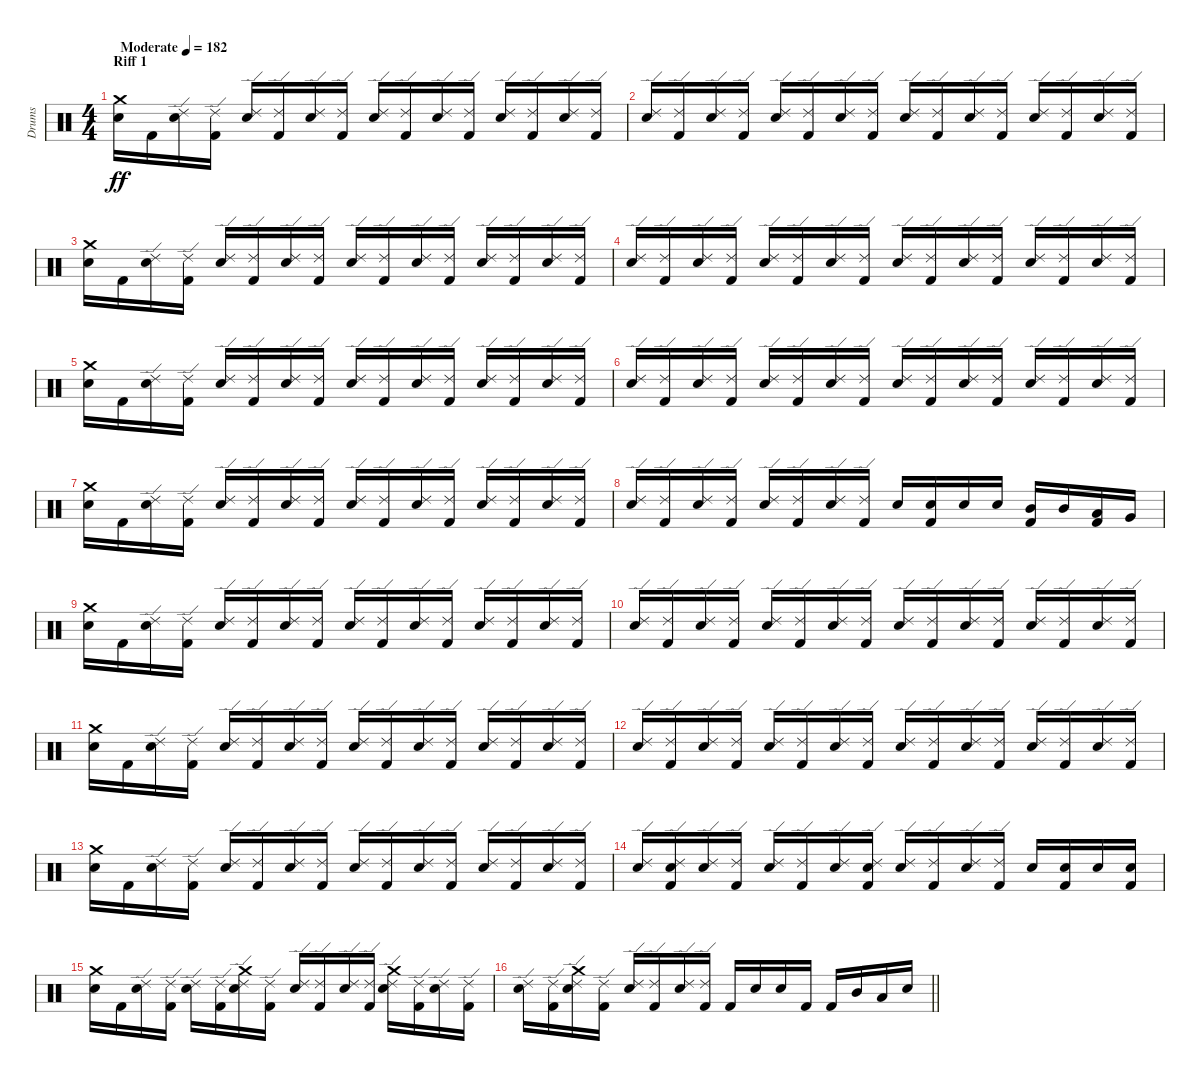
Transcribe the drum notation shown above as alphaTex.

\track ("Drums" "Drums") {instrument percussion}
\staff {score}
\articulation defaults
\ts (4 4)
\section ("" "Riff 1")
\tempo (182 "Moderate")
\clef neutral
\ks c
("Crash medium (hit)" "Snare (hit) 2").16{dy ff} "Kick (hit) 2".16 ("Snare (hit) 2" "Ride (edge) 2").16 ("Kick (hit) 2" "Ride (edge) 2").16 ("Snare (hit) 2" "Ride (edge) 2").16 ("Kick (hit) 2" "Ride (edge) 2").16 ("Snare (hit) 2" "Ride (edge) 2").16 ("Kick (hit) 2" "Ride (edge) 2").16 ("Snare (hit) 2" "Ride (edge) 2").16 ("Kick (hit) 2" "Ride (edge) 2").16 ("Snare (hit) 2" "Ride (edge) 2").16 ("Kick (hit) 2" "Ride (edge) 2").16 ("Snare (hit) 2" "Ride (edge) 2").16 ("Kick (hit) 2" "Ride (edge) 2").16 ("Snare (hit) 2" "Ride (edge) 2").16 ("Kick (hit) 2" "Ride (edge) 2").16 |
("Snare (hit) 2" "Ride (edge) 2").16 ("Kick (hit) 2" "Ride (edge) 2").16 ("Snare (hit) 2" "Ride (edge) 2").16 ("Kick (hit) 2" "Ride (edge) 2").16 ("Snare (hit) 2" "Ride (edge) 2").16 ("Kick (hit) 2" "Ride (edge) 2").16 ("Snare (hit) 2" "Ride (edge) 2").16 ("Kick (hit) 2" "Ride (edge) 2").16 ("Snare (hit) 2" "Ride (edge) 2").16 ("Kick (hit) 2" "Ride (edge) 2").16 ("Snare (hit) 2" "Ride (edge) 2").16 ("Kick (hit) 2" "Ride (edge) 2").16 ("Snare (hit) 2" "Ride (edge) 2").16 ("Kick (hit) 2" "Ride (edge) 2").16 ("Snare (hit) 2" "Ride (edge) 2").16 ("Kick (hit) 2" "Ride (edge) 2").16 |
("Crash medium (hit)" "Snare (hit) 2").16 "Kick (hit) 2".16 ("Snare (hit) 2" "Ride (edge) 2").16 ("Kick (hit) 2" "Ride (edge) 2").16 ("Snare (hit) 2" "Ride (edge) 2").16 ("Kick (hit) 2" "Ride (edge) 2").16 ("Snare (hit) 2" "Ride (edge) 2").16 ("Kick (hit) 2" "Ride (edge) 2").16 ("Snare (hit) 2" "Ride (edge) 2").16 ("Kick (hit) 2" "Ride (edge) 2").16 ("Snare (hit) 2" "Ride (edge) 2").16 ("Kick (hit) 2" "Ride (edge) 2").16 ("Snare (hit) 2" "Ride (edge) 2").16 ("Kick (hit) 2" "Ride (edge) 2").16 ("Snare (hit) 2" "Ride (edge) 2").16 ("Kick (hit) 2" "Ride (edge) 2").16 |
("Snare (hit) 2" "Ride (edge) 2").16 ("Kick (hit) 2" "Ride (edge) 2").16 ("Snare (hit) 2" "Ride (edge) 2").16 ("Kick (hit) 2" "Ride (edge) 2").16 ("Snare (hit) 2" "Ride (edge) 2").16 ("Kick (hit) 2" "Ride (edge) 2").16 ("Snare (hit) 2" "Ride (edge) 2").16 ("Kick (hit) 2" "Ride (edge) 2").16 ("Snare (hit) 2" "Ride (edge) 2").16 ("Kick (hit) 2" "Ride (edge) 2").16 ("Snare (hit) 2" "Ride (edge) 2").16 ("Kick (hit) 2" "Ride (edge) 2").16 ("Snare (hit) 2" "Ride (edge) 2").16 ("Kick (hit) 2" "Ride (edge) 2").16 ("Snare (hit) 2" "Ride (edge) 2").16 ("Kick (hit) 2" "Ride (edge) 2").16 |
("Crash medium (hit)" "Snare (hit) 2").16 "Kick (hit) 2".16 ("Snare (hit) 2" "Ride (edge) 2").16 ("Kick (hit) 2" "Ride (edge) 2").16 ("Snare (hit) 2" "Ride (edge) 2").16 ("Kick (hit) 2" "Ride (edge) 2").16 ("Snare (hit) 2" "Ride (edge) 2").16 ("Kick (hit) 2" "Ride (edge) 2").16 ("Snare (hit) 2" "Ride (edge) 2").16 ("Kick (hit) 2" "Ride (edge) 2").16 ("Snare (hit) 2" "Ride (edge) 2").16 ("Kick (hit) 2" "Ride (edge) 2").16 ("Snare (hit) 2" "Ride (edge) 2").16 ("Kick (hit) 2" "Ride (edge) 2").16 ("Snare (hit) 2" "Ride (edge) 2").16 ("Kick (hit) 2" "Ride (edge) 2").16 |
("Snare (hit) 2" "Ride (edge) 2").16 ("Kick (hit) 2" "Ride (edge) 2").16 ("Snare (hit) 2" "Ride (edge) 2").16 ("Kick (hit) 2" "Ride (edge) 2").16 ("Snare (hit) 2" "Ride (edge) 2").16 ("Kick (hit) 2" "Ride (edge) 2").16 ("Snare (hit) 2" "Ride (edge) 2").16 ("Kick (hit) 2" "Ride (edge) 2").16 ("Snare (hit) 2" "Ride (edge) 2").16 ("Kick (hit) 2" "Ride (edge) 2").16 ("Snare (hit) 2" "Ride (edge) 2").16 ("Kick (hit) 2" "Ride (edge) 2").16 ("Snare (hit) 2" "Ride (edge) 2").16 ("Kick (hit) 2" "Ride (edge) 2").16 ("Snare (hit) 2" "Ride (edge) 2").16 ("Kick (hit) 2" "Ride (edge) 2").16 |
("Crash medium (hit)" "Snare (hit) 2").16 "Kick (hit) 2".16 ("Snare (hit) 2" "Ride (edge) 2").16 ("Kick (hit) 2" "Ride (edge) 2").16 ("Snare (hit) 2" "Ride (edge) 2").16 ("Kick (hit) 2" "Ride (edge) 2").16 ("Snare (hit) 2" "Ride (edge) 2").16 ("Kick (hit) 2" "Ride (edge) 2").16 ("Snare (hit) 2" "Ride (edge) 2").16 ("Kick (hit) 2" "Ride (edge) 2").16 ("Snare (hit) 2" "Ride (edge) 2").16 ("Kick (hit) 2" "Ride (edge) 2").16 ("Snare (hit) 2" "Ride (edge) 2").16 ("Kick (hit) 2" "Ride (edge) 2").16 ("Snare (hit) 2" "Ride (edge) 2").16 ("Kick (hit) 2" "Ride (edge) 2").16 |
("Snare (hit) 2" "Ride (edge) 2").16 ("Kick (hit) 2" "Ride (edge) 2").16 ("Snare (hit) 2" "Ride (edge) 2").16 ("Kick (hit) 2" "Ride (edge) 2").16 ("Snare (hit) 2" "Ride (edge) 2").16 ("Kick (hit) 2" "Ride (edge) 2").16 ("Snare (hit) 2" "Ride (edge) 2").16 ("Kick (hit) 2" "Ride (edge) 2").16 "Snare (hit) 2".16 ("Kick (hit) 2" "Snare (hit) 2").16 "Snare (hit) 2".16 "Snare (hit) 2".16 ("Kick (hit) 2" "Mid Tom (hit)").16 "Mid Tom (hit)".16 ("Kick (hit) 2" "Low Tom (hit)").16 "Very Low Tom (hit)".16 |
("Crash medium (hit)" "Snare (hit) 2").16 "Kick (hit) 2".16 ("Snare (hit) 2" "Ride (edge) 2").16 ("Kick (hit) 2" "Ride (edge) 2").16 ("Snare (hit) 2" "Ride (edge) 2").16 ("Kick (hit) 2" "Ride (edge) 2").16 ("Snare (hit) 2" "Ride (edge) 2").16 ("Kick (hit) 2" "Ride (edge) 2").16 ("Snare (hit) 2" "Ride (edge) 2").16 ("Kick (hit) 2" "Ride (edge) 2").16 ("Snare (hit) 2" "Ride (edge) 2").16 ("Kick (hit) 2" "Ride (edge) 2").16 ("Snare (hit) 2" "Ride (edge) 2").16 ("Kick (hit) 2" "Ride (edge) 2").16 ("Snare (hit) 2" "Ride (edge) 2").16 ("Kick (hit) 2" "Ride (edge) 2").16 |
("Snare (hit) 2" "Ride (edge) 2").16 ("Kick (hit) 2" "Ride (edge) 2").16 ("Snare (hit) 2" "Ride (edge) 2").16 ("Kick (hit) 2" "Ride (edge) 2").16 ("Snare (hit) 2" "Ride (edge) 2").16 ("Kick (hit) 2" "Ride (edge) 2").16 ("Snare (hit) 2" "Ride (edge) 2").16 ("Kick (hit) 2" "Ride (edge) 2").16 ("Snare (hit) 2" "Ride (edge) 2").16 ("Kick (hit) 2" "Ride (edge) 2").16 ("Snare (hit) 2" "Ride (edge) 2").16 ("Kick (hit) 2" "Ride (edge) 2").16 ("Snare (hit) 2" "Ride (edge) 2").16 ("Kick (hit) 2" "Ride (edge) 2").16 ("Snare (hit) 2" "Ride (edge) 2").16 ("Kick (hit) 2" "Ride (edge) 2").16 |
("Crash medium (hit)" "Snare (hit) 2").16 "Kick (hit) 2".16 ("Snare (hit) 2" "Ride (edge) 2").16 ("Kick (hit) 2" "Ride (edge) 2").16 ("Snare (hit) 2" "Ride (edge) 2").16 ("Kick (hit) 2" "Ride (edge) 2").16 ("Snare (hit) 2" "Ride (edge) 2").16 ("Kick (hit) 2" "Ride (edge) 2").16 ("Snare (hit) 2" "Ride (edge) 2").16 ("Kick (hit) 2" "Ride (edge) 2").16 ("Snare (hit) 2" "Ride (edge) 2").16 ("Kick (hit) 2" "Ride (edge) 2").16 ("Snare (hit) 2" "Ride (edge) 2").16 ("Kick (hit) 2" "Ride (edge) 2").16 ("Snare (hit) 2" "Ride (edge) 2").16 ("Kick (hit) 2" "Ride (edge) 2").16 |
("Snare (hit) 2" "Ride (edge) 2").16 ("Kick (hit) 2" "Ride (edge) 2").16 ("Snare (hit) 2" "Ride (edge) 2").16 ("Kick (hit) 2" "Ride (edge) 2").16 ("Snare (hit) 2" "Ride (edge) 2").16 ("Kick (hit) 2" "Ride (edge) 2").16 ("Snare (hit) 2" "Ride (edge) 2").16 ("Kick (hit) 2" "Ride (edge) 2").16 ("Snare (hit) 2" "Ride (edge) 2").16 ("Kick (hit) 2" "Ride (edge) 2").16 ("Snare (hit) 2" "Ride (edge) 2").16 ("Kick (hit) 2" "Ride (edge) 2").16 ("Snare (hit) 2" "Ride (edge) 2").16 ("Kick (hit) 2" "Ride (edge) 2").16 ("Snare (hit) 2" "Ride (edge) 2").16 ("Kick (hit) 2" "Ride (edge) 2").16 |
("Crash medium (hit)" "Snare (hit) 2").16 "Kick (hit) 2".16 ("Snare (hit) 2" "Ride (edge) 2").16 ("Kick (hit) 2" "Ride (edge) 2").16 ("Snare (hit) 2" "Ride (edge) 2").16 ("Kick (hit) 2" "Ride (edge) 2").16 ("Snare (hit) 2" "Ride (edge) 2").16 ("Kick (hit) 2" "Ride (edge) 2").16 ("Snare (hit) 2" "Ride (edge) 2").16 ("Kick (hit) 2" "Ride (edge) 2").16 ("Snare (hit) 2" "Ride (edge) 2").16 ("Kick (hit) 2" "Ride (edge) 2").16 ("Snare (hit) 2" "Ride (edge) 2").16 ("Kick (hit) 2" "Ride (edge) 2").16 ("Snare (hit) 2" "Ride (edge) 2").16 ("Kick (hit) 2" "Ride (edge) 2").16 |
("Snare (hit) 2" "Ride (edge) 2").16 ("Kick (hit) 2" "Snare (hit) 2" "Ride (edge) 2").16 ("Snare (hit) 2" "Ride (edge) 2").16 ("Kick (hit) 2" "Ride (edge) 2").16 ("Snare (hit) 2" "Ride (edge) 2").16 ("Kick (hit) 2" "Ride (edge) 2").16 ("Snare (hit) 2" "Ride (edge) 2").16 ("Kick (hit) 2" "Snare (hit) 2" "Ride (edge) 2").16 ("Snare (hit) 2" "Ride (edge) 2").16 ("Kick (hit) 2" "Ride (edge) 2").16 ("Snare (hit) 2" "Ride (edge) 2").16 ("Kick (hit) 2" "Ride (edge) 2").16 "Snare (hit) 2".16 ("Kick (hit) 2" "Snare (hit) 2").16 "Snare (hit) 2".16 ("Kick (hit) 2" "Snare (hit) 2").16 |
("Crash medium (hit)" "Snare (hit) 2").16 "Kick (hit) 2".16 ("Snare (hit) 2" "Ride (edge) 2").16 ("Kick (hit) 2" "Ride (edge) 2").16 ("Snare (hit) 2" "Ride (edge) 2").16 ("Kick (hit) 2" "Ride (edge) 2").16 ("Crash medium (hit)" "Snare (hit) 2" "Ride (edge) 2").16 ("Kick (hit) 2" "Ride (edge) 2").16 ("Snare (hit) 2" "Ride (edge) 2").16 ("Kick (hit) 2" "Ride (edge) 2").16 ("Snare (hit) 2" "Ride (edge) 2").16 ("Kick (hit) 2" "Ride (edge) 2").16 ("Crash medium (hit)" "Snare (hit) 2" "Ride (edge) 2").16 ("Kick (hit) 2" "Ride (edge) 2").16 ("Snare (hit) 2" "Ride (edge) 2").16 ("Kick (hit) 2" "Ride (edge) 2").16 |
\barLineRight lightlight
("Snare (hit) 2" "Ride (edge) 2").16 ("Kick (hit) 2" "Ride (edge) 2").16 ("Crash medium (hit)" "Snare (hit) 2" "Ride (edge) 2").16 ("Kick (hit) 2" "Ride (edge) 2").16 ("Snare (hit) 2" "Ride (edge) 2").16 ("Kick (hit) 2" "Ride (edge) 2").16 ("Snare (hit) 2" "Ride (edge) 2").16 ("Kick (hit) 2" "Ride (edge) 2").16 "Kick (hit) 2".16 "Snare (hit) 2".16 "Snare (hit) 2".16 "Kick (hit) 2".16 "Kick (hit) 2".16 "Mid Tom (hit)".16 "Low Tom (hit)".16 "Snare (hit) 2".16
